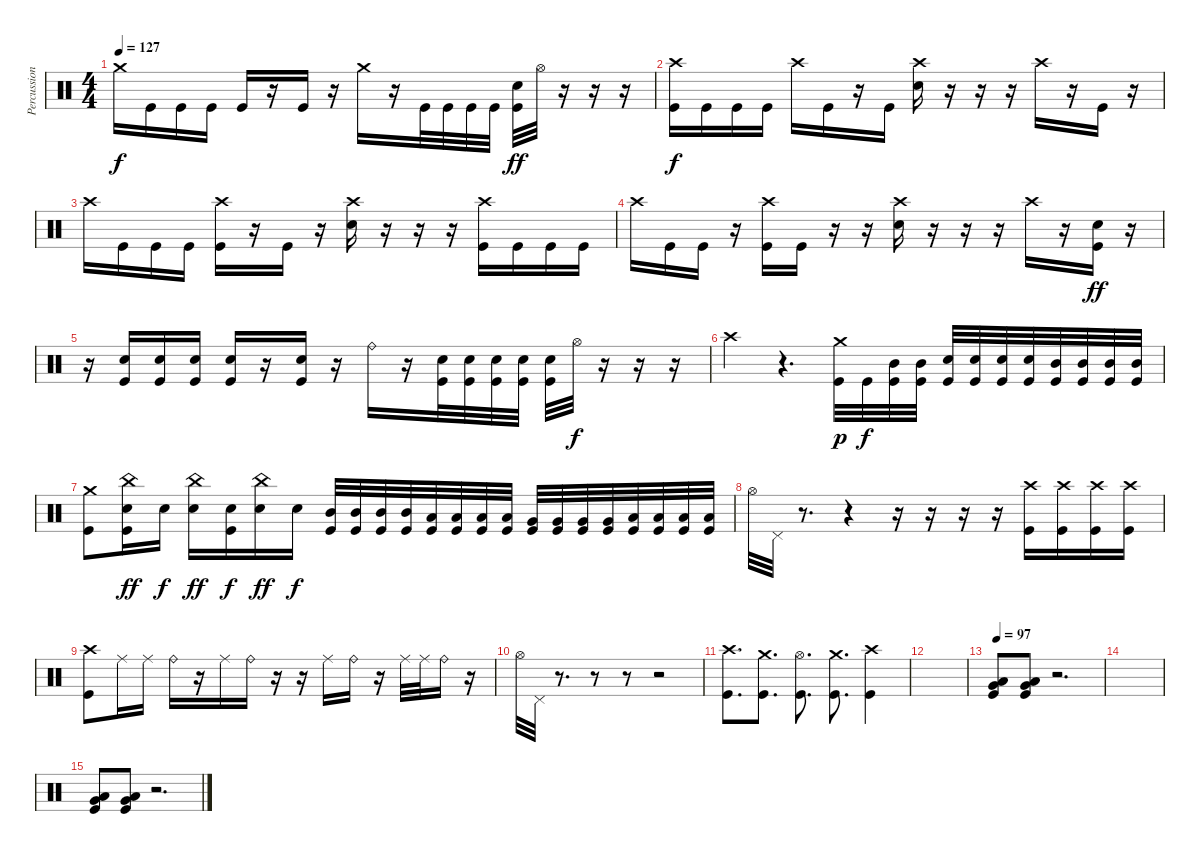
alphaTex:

\track ("Percussion" "Percussion") {instrument percussion}
\staff {score}
\articulation defaults
\ts (4 4)
\tempo 127
\clef neutral
\ks c "Crash medium (hit)".16{dy f} "Kick (hit)".16 "Kick (hit)".16 "Kick (hit)".16 "Kick (hit)".16
r.16 "Kick (hit)".16 r.16 "Crash medium (hit)".16 r.16 "Kick (hit)".32 "Kick (hit)".32 "Kick (hit)".32 "Kick (hit)".32 ("Snare (hit) 2" "Kick (hit)").32{dy ff} "Hi-Hat (open)".32 r.16 r.16 r.16 |
("Crash high (hit)" "Kick (hit)").16{dy f} "Kick (hit)".16 "Kick (hit)".16 "Kick (hit)".16 "Crash high (hit)".16 "Kick (hit)".16 r.16 "Kick (hit)".16 ("Crash high (hit)" "Snare (hit) 2").16 r.16 r.16 r.16 "Crash high (hit)".16 r.16 "Kick (hit)".16 r.16 |
"Crash high (hit)".16 "Kick (hit)".16 "Kick (hit)".16 "Kick (hit)".16 ("Crash high (hit)" "Kick (hit)").16 r.16 "Kick (hit)".16 r.16 ("Crash high (hit)" "Snare (hit) 2").16 r.16 r.16 r.16 ("Crash high (hit)" "Kick (hit)").16 "Kick (hit)".16 "Kick (hit)".16 "Kick (hit)".16 |
"Crash high (hit)".16 "Kick (hit)".16 "Kick (hit)".16 r.16 ("Crash high (hit)" "Kick (hit)").16 "Kick (hit)".16 r.16 r.16 ("Crash high (hit)" "Snare (hit) 2").16 r.16 r.16 r.16 "Crash high (hit)".16 r.16 ("Snare (hit) 2" "Kick (hit)").16{dy ff} r.16 |
r.16 ("Snare (hit) 2" "Kick (hit)").16 ("Snare (hit) 2" "Kick (hit)").16 ("Snare (hit) 2" "Kick (hit)").16 ("Snare (hit) 2" "Kick (hit)").16 r.16 ("Snare (hit) 2" "Kick (hit)").16 r.16 "Ride (bell)".16 r.16 ("Snare (hit) 2" "Kick (hit)").32 ("Snare (hit) 2" "Kick (hit)").32 ("Snare (hit) 2" "Kick (hit)").32 ("Snare (hit) 2" "Kick (hit)").32 ("Snare (hit) 2" "Kick (hit)").32 "Hi-Hat (open)".32{dy f} r.16 r.16 r.16 |
"Crash high (hit)".4 r.4{d} ("Crash medium (hit)" "Kick (hit)").32{dy p} "Kick (hit)".32{dy f} ("Mid Tom (hit)" "Kick (hit)").32 ("Mid Tom (hit)" "Kick (hit)").32 ("Snare (hit) 2" "Kick (hit)").32 ("Snare (hit) 2" "Kick (hit)").32 ("Snare (hit) 2" "Kick (hit)").32 ("Snare (hit) 2" "Kick (hit)").32 ("Mid Tom (hit)" "Kick (hit)").32 ("Mid Tom (hit)" "Kick (hit)").32 ("Mid Tom (hit)" "Kick (hit)").32 ("Mid Tom (hit)" "Kick (hit)").32 |
("Crash medium (hit)" "Kick (hit)").8 ("China (hit)" "Snare (hit) 2" "Kick (hit)").16{dy ff} "Snare (hit) 2".16{dy f} ("China (hit)" "Snare (hit) 2").16{dy ff} ("Snare (hit) 2" "Kick (hit)").16{dy f} ("China (hit)" "Snare (hit) 2").16{dy ff} "Snare (hit) 2".16{dy f} ("Mid Tom (hit)" "Kick (hit)").32 ("Mid Tom (hit)" "Kick (hit)").32 ("Mid Tom (hit)" "Kick (hit)").32 ("Mid Tom (hit)" "Kick (hit)").32 ("Low Tom (hit)" "Kick (hit)").32 ("Low Tom (hit)" "Kick (hit)").32 ("Low Tom (hit)" "Kick (hit)").32 ("Low Tom (hit)" "Kick (hit)").32 ("Very Low Tom (hit)" "Kick (hit)").32 ("Very Low Tom (hit)" "Kick (hit)").32 ("Very Low Tom (hit)" "Kick (hit)").32 ("Very Low Tom (hit)" "Kick (hit)").32 ("Low Floor Tom (hit)" "Kick (hit)").32 ("Low Floor Tom (hit)" "Kick (hit)").32 ("Low Floor Tom (hit)" "Kick (hit)").32 ("Low Floor Tom (hit)" "Kick (hit)").32 |
"Hi-Hat (open)".32 "Pedal Hi-Hat (hit)".32 r.8{d} r.4 r.16 r.16 r.16 r.16 ("Crash high (hit)" "Kick (hit)").16 ("Crash high (hit)" "Kick (hit)").16 ("Crash high (hit)" "Kick (hit)").16 ("Crash high (hit)" "Kick (hit)").16 |
("Crash high (hit)" "Kick (hit)").8 "Ride (middle)".16 "Ride (middle)".16 "Ride (bell)".16 r.16 "Ride (middle)".16 "Ride (bell)".16 r.16 r.16 "Ride (middle)".16 "Ride (bell)".16 r.16 "Ride (middle)".32 "Ride (middle)".32 "Ride (bell)".16 r.16 |
"Hi-Hat (open)".32 "Pedal Hi-Hat (hit)".32 r.8{d} r.8 r.8 r.2 |
("Crash high (hit)" "Kick (hit)").8{d} ("Crash medium (hit)" "Kick (hit)").8{d} ("Hi-Hat (open)" "Kick (hit)").8{d} ("Crash medium (hit)" "Kick (hit)").8{d} ("Crash high (hit)" "Kick (hit)").4 |
|
\tempo 97
("Low Tom (hit)" "Very Low Tom (hit)" "Kick (hit)").8 ("Low Tom (hit)" "Very Low Tom (hit)" "Kick (hit)").8 r.2{d} |
|
("Low Tom (hit)" "Very Low Tom (hit)" "Kick (hit)").8 ("Low Tom (hit)" "Very Low Tom (hit)" "Kick (hit)").8 r.2{d}
